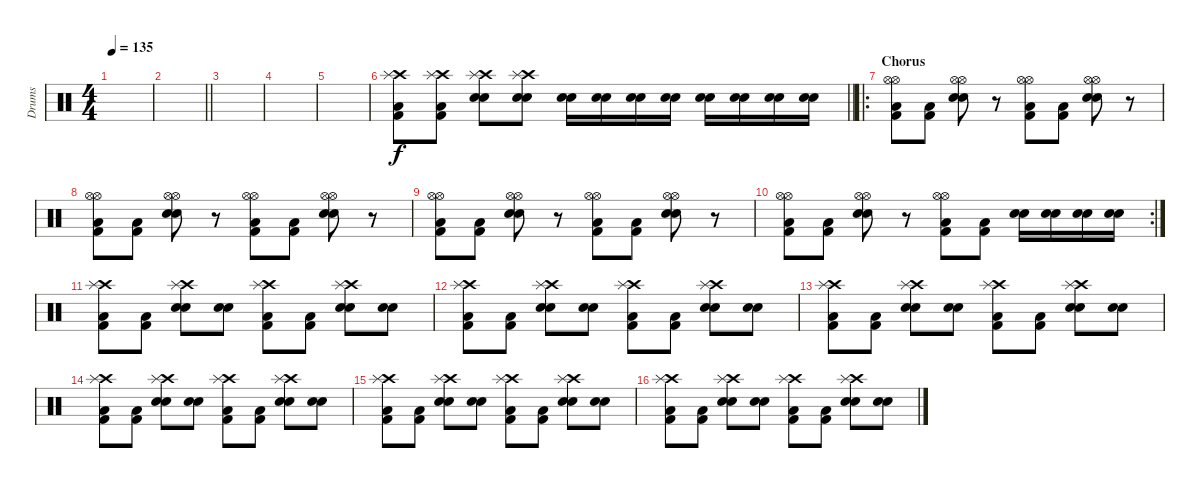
\track ("Drums" "Drums") {instrument percussion}
\staff {score}
\articulation defaults
\ts (4 4)
\tempo 135
\clef neutral
\ks c
|
\barLineRight lightlight
|
|
|
|
\barLineRight lightlight
("Crash high (hit)" "Splash (hit)" "Kick (hit) 2" "Low Floor Tom (hit)").8{dy f} ("Crash high (hit)" "Splash (hit)" "Kick (hit) 2" "Low Floor Tom (hit)").8 ("Crash high (hit)" "Splash (hit)" "Electric Snare (hit)" "Electric Snare (hit)").8 ("Crash high (hit)" "Splash (hit)" "Electric Snare (hit)" "Electric Snare (hit)").8 ("Electric Snare (hit)" "Snare (hit) 2").16 ("Electric Snare (hit)" "Snare (hit) 2").16 ("Electric Snare (hit)" "Snare (hit) 2").16 ("Electric Snare (hit)" "Snare (hit) 2").16 ("Electric Snare (hit)" "Snare (hit) 2").16 ("Electric Snare (hit)" "Snare (hit) 2").16 ("Electric Snare (hit)" "Snare (hit) 2").16 ("Electric Snare (hit)" "Snare (hit) 2").16 |
\ro
\section ("" "Chorus")
("Hi-Hat (open)" "Hi-Hat (open)" "Kick (hit) 2" "Low Floor Tom (hit)").8 ("Kick (hit) 2" "Low Floor Tom (hit)").8 ("Hi-Hat (open)" "Hi-Hat (open)" "Electric Snare (hit)" "Electric Snare (hit)").8 r.8 ("Hi-Hat (open)" "Hi-Hat (open)" "Kick (hit) 2" "Low Floor Tom (hit)").8 ("Kick (hit) 2" "Low Floor Tom (hit)").8 ("Hi-Hat (open)" "Hi-Hat (open)" "Electric Snare (hit)" "Electric Snare (hit)").8 r.8 |
("Hi-Hat (open)" "Hi-Hat (open)" "Kick (hit) 2" "Low Floor Tom (hit)").8 ("Kick (hit) 2" "Low Floor Tom (hit)").8 ("Hi-Hat (open)" "Hi-Hat (open)" "Electric Snare (hit)" "Electric Snare (hit)").8 r.8 ("Hi-Hat (open)" "Hi-Hat (open)" "Kick (hit) 2" "Low Floor Tom (hit)").8 ("Kick (hit) 2" "Low Floor Tom (hit)").8 ("Hi-Hat (open)" "Hi-Hat (open)" "Electric Snare (hit)" "Electric Snare (hit)").8 r.8 |
("Hi-Hat (open)" "Hi-Hat (open)" "Kick (hit) 2" "Low Floor Tom (hit)").8 ("Kick (hit) 2" "Low Floor Tom (hit)").8 ("Hi-Hat (open)" "Hi-Hat (open)" "Electric Snare (hit)" "Electric Snare (hit)").8 r.8 ("Hi-Hat (open)" "Hi-Hat (open)" "Kick (hit) 2" "Low Floor Tom (hit)").8 ("Kick (hit) 2" "Low Floor Tom (hit)").8 ("Hi-Hat (open)" "Hi-Hat (open)" "Electric Snare (hit)" "Electric Snare (hit)").8 r.8 |
\rc 2
("Hi-Hat (open)" "Hi-Hat (open)" "Kick (hit) 2" "Low Floor Tom (hit)").8 ("Kick (hit) 2" "Low Floor Tom (hit)").8 ("Hi-Hat (open)" "Hi-Hat (open)" "Electric Snare (hit)" "Electric Snare (hit)").8 r.8 ("Hi-Hat (open)" "Hi-Hat (open)" "Kick (hit) 2" "Low Floor Tom (hit)").8 ("Kick (hit) 2" "Low Floor Tom (hit)").8 ("Snare (hit) 2" "Electric Snare (hit)").16 ("Snare (hit) 2" "Electric Snare (hit)").16 ("Snare (hit) 2" "Electric Snare (hit)").16 ("Snare (hit) 2" "Electric Snare (hit)").16 |
("Crash high (hit)" "Splash (hit)" "Kick (hit) 2" "Low Floor Tom (hit)").8 ("Kick (hit) 2" "Low Floor Tom (hit)").8 ("Crash high (hit)" "Splash (hit)" "Electric Snare (hit)" "Electric Snare (hit)").8 ("Electric Snare (hit)" "Electric Snare (hit)").8 ("Crash high (hit)" "Splash (hit)" "Kick (hit) 2" "Low Floor Tom (hit)").8 ("Kick (hit) 2" "Low Floor Tom (hit)").8 ("Crash high (hit)" "Splash (hit)" "Electric Snare (hit)" "Electric Snare (hit)").8 ("Electric Snare (hit)" "Electric Snare (hit)").8 |
("Crash high (hit)" "Splash (hit)" "Kick (hit) 2" "Low Floor Tom (hit)").8 ("Kick (hit) 2" "Low Floor Tom (hit)").8 ("Crash high (hit)" "Splash (hit)" "Electric Snare (hit)" "Electric Snare (hit)").8 ("Electric Snare (hit)" "Electric Snare (hit)").8 ("Crash high (hit)" "Splash (hit)" "Kick (hit) 2" "Low Floor Tom (hit)").8 ("Kick (hit) 2" "Low Floor Tom (hit)").8 ("Crash high (hit)" "Splash (hit)" "Electric Snare (hit)" "Electric Snare (hit)").8 ("Electric Snare (hit)" "Electric Snare (hit)").8 |
("Crash high (hit)" "Splash (hit)" "Kick (hit) 2" "Low Floor Tom (hit)").8 ("Kick (hit) 2" "Low Floor Tom (hit)").8 ("Crash high (hit)" "Splash (hit)" "Electric Snare (hit)" "Electric Snare (hit)").8 ("Electric Snare (hit)" "Electric Snare (hit)").8 ("Crash high (hit)" "Splash (hit)" "Kick (hit) 2" "Low Floor Tom (hit)").8 ("Kick (hit) 2" "Low Floor Tom (hit)").8 ("Crash high (hit)" "Splash (hit)" "Electric Snare (hit)" "Electric Snare (hit)").8 ("Electric Snare (hit)" "Electric Snare (hit)").8 |
("Crash high (hit)" "Splash (hit)" "Kick (hit) 2" "Low Floor Tom (hit)").8 ("Kick (hit) 2" "Low Floor Tom (hit)").8 ("Crash high (hit)" "Splash (hit)" "Electric Snare (hit)" "Electric Snare (hit)").8 ("Electric Snare (hit)" "Electric Snare (hit)").8 ("Crash high (hit)" "Splash (hit)" "Kick (hit) 2" "Low Floor Tom (hit)").8 ("Kick (hit) 2" "Low Floor Tom (hit)").8 ("Crash high (hit)" "Splash (hit)" "Electric Snare (hit)" "Electric Snare (hit)").8 ("Electric Snare (hit)" "Electric Snare (hit)").8 |
("Crash high (hit)" "Splash (hit)" "Kick (hit) 2" "Low Floor Tom (hit)").8 ("Kick (hit) 2" "Low Floor Tom (hit)").8 ("Crash high (hit)" "Splash (hit)" "Electric Snare (hit)" "Electric Snare (hit)").8 ("Electric Snare (hit)" "Electric Snare (hit)").8 ("Crash high (hit)" "Splash (hit)" "Kick (hit) 2" "Low Floor Tom (hit)").8 ("Kick (hit) 2" "Low Floor Tom (hit)").8 ("Crash high (hit)" "Splash (hit)" "Electric Snare (hit)" "Electric Snare (hit)").8 ("Electric Snare (hit)" "Electric Snare (hit)").8 |
("Crash high (hit)" "Splash (hit)" "Kick (hit) 2" "Low Floor Tom (hit)").8 ("Kick (hit) 2" "Low Floor Tom (hit)").8 ("Crash high (hit)" "Splash (hit)" "Electric Snare (hit)" "Electric Snare (hit)").8 ("Electric Snare (hit)" "Electric Snare (hit)").8 ("Crash high (hit)" "Splash (hit)" "Kick (hit) 2" "Low Floor Tom (hit)").8 ("Kick (hit) 2" "Low Floor Tom (hit)").8 ("Crash high (hit)" "Splash (hit)" "Electric Snare (hit)" "Electric Snare (hit)").8 ("Electric Snare (hit)" "Electric Snare (hit)").8
